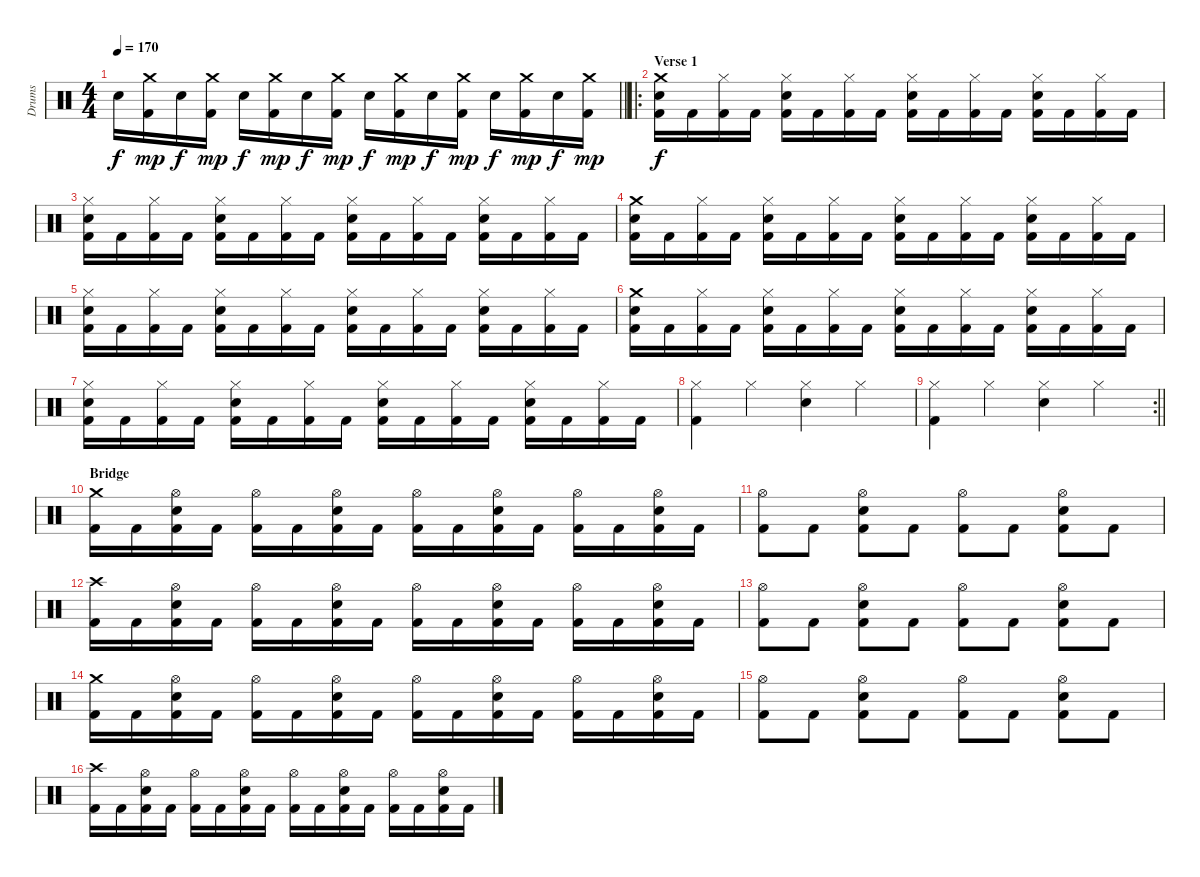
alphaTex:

\track ("Drums" "Drums") {instrument percussion}
\staff {score}
\articulation defaults
\ts (4 4)
\tempo 170
\clef neutral
\barLineRight lightlight
\ks c "Snare (hit) 2".16{dy f}
("Kick (hit) 2" "Crash medium (hit)").16{dy mp} "Snare (hit) 2".16{dy f} ("Kick (hit) 2" "Crash medium (hit)").16{dy mp} "Snare (hit) 2".16{dy f} ("Kick (hit) 2" "Crash medium (hit)").16{dy mp} "Snare (hit) 2".16{dy f} ("Kick (hit) 2" "Crash medium (hit)").16{dy mp} "Snare (hit) 2".16{dy f} ("Kick (hit) 2" "Crash medium (hit)").16{dy mp} "Snare (hit) 2".16{dy f} ("Kick (hit) 2" "Crash medium (hit)").16{dy mp} "Snare (hit) 2".16{dy f} ("Kick (hit) 2" "Crash medium (hit)").16{dy mp} "Snare (hit) 2".16{dy f} ("Kick (hit) 2" "Crash medium (hit)").16{dy mp} |
\ro
\section ("" "Verse 1")
("Kick (hit) 2" "Snare (hit) 2" "Crash medium (hit)").16{dy f} "Kick (hit) 2".16 ("Kick (hit) 2" "Hi-Hat (closed)").16 "Kick (hit) 2".16 ("Kick (hit) 2" "Snare (hit) 2" "Hi-Hat (closed)").16 "Kick (hit) 2".16 ("Kick (hit) 2" "Hi-Hat (closed)").16 "Kick (hit) 2".16 ("Kick (hit) 2" "Snare (hit) 2" "Hi-Hat (closed)").16 "Kick (hit) 2".16 ("Kick (hit) 2" "Hi-Hat (closed)").16 "Kick (hit) 2".16 ("Kick (hit) 2" "Snare (hit) 2" "Hi-Hat (closed)").16 "Kick (hit) 2".16 ("Kick (hit) 2" "Hi-Hat (closed)").16 "Kick (hit) 2".16 |
("Kick (hit) 2" "Snare (hit) 2" "Hi-Hat (closed)").16 "Kick (hit) 2".16 ("Kick (hit) 2" "Hi-Hat (closed)").16 "Kick (hit) 2".16 ("Kick (hit) 2" "Snare (hit) 2" "Hi-Hat (closed)").16 "Kick (hit) 2".16 ("Kick (hit) 2" "Hi-Hat (closed)").16 "Kick (hit) 2".16 ("Kick (hit) 2" "Snare (hit) 2" "Hi-Hat (closed)").16 "Kick (hit) 2".16 ("Kick (hit) 2" "Hi-Hat (closed)").16 "Kick (hit) 2".16 ("Kick (hit) 2" "Snare (hit) 2" "Hi-Hat (closed)").16 "Kick (hit) 2".16 ("Kick (hit) 2" "Hi-Hat (closed)").16 "Kick (hit) 2".16 |
("Kick (hit) 2" "Snare (hit) 2" "Crash medium (hit)").16 "Kick (hit) 2".16 ("Kick (hit) 2" "Hi-Hat (closed)").16 "Kick (hit) 2".16 ("Kick (hit) 2" "Snare (hit) 2" "Hi-Hat (closed)").16 "Kick (hit) 2".16 ("Kick (hit) 2" "Hi-Hat (closed)").16 "Kick (hit) 2".16 ("Kick (hit) 2" "Snare (hit) 2" "Hi-Hat (closed)").16 "Kick (hit) 2".16 ("Kick (hit) 2" "Hi-Hat (closed)").16 "Kick (hit) 2".16 ("Kick (hit) 2" "Snare (hit) 2" "Hi-Hat (closed)").16 "Kick (hit) 2".16 ("Kick (hit) 2" "Hi-Hat (closed)").16 "Kick (hit) 2".16 |
("Kick (hit) 2" "Snare (hit) 2" "Hi-Hat (closed)").16 "Kick (hit) 2".16 ("Kick (hit) 2" "Hi-Hat (closed)").16 "Kick (hit) 2".16 ("Kick (hit) 2" "Snare (hit) 2" "Hi-Hat (closed)").16 "Kick (hit) 2".16 ("Kick (hit) 2" "Hi-Hat (closed)").16 "Kick (hit) 2".16 ("Kick (hit) 2" "Snare (hit) 2" "Hi-Hat (closed)").16 "Kick (hit) 2".16 ("Kick (hit) 2" "Hi-Hat (closed)").16 "Kick (hit) 2".16 ("Kick (hit) 2" "Snare (hit) 2" "Hi-Hat (closed)").16 "Kick (hit) 2".16 ("Kick (hit) 2" "Hi-Hat (closed)").16 "Kick (hit) 2".16 |
("Kick (hit) 2" "Snare (hit) 2" "Crash medium (hit)").16 "Kick (hit) 2".16 ("Kick (hit) 2" "Hi-Hat (closed)").16 "Kick (hit) 2".16 ("Kick (hit) 2" "Snare (hit) 2" "Hi-Hat (closed)").16 "Kick (hit) 2".16 ("Kick (hit) 2" "Hi-Hat (closed)").16 "Kick (hit) 2".16 ("Kick (hit) 2" "Snare (hit) 2" "Hi-Hat (closed)").16 "Kick (hit) 2".16 ("Kick (hit) 2" "Hi-Hat (closed)").16 "Kick (hit) 2".16 ("Kick (hit) 2" "Snare (hit) 2" "Hi-Hat (closed)").16 "Kick (hit) 2".16 ("Kick (hit) 2" "Hi-Hat (closed)").16 "Kick (hit) 2".16 |
("Kick (hit) 2" "Snare (hit) 2" "Hi-Hat (closed)").16 "Kick (hit) 2".16 ("Kick (hit) 2" "Hi-Hat (closed)").16 "Kick (hit) 2".16 ("Kick (hit) 2" "Snare (hit) 2" "Hi-Hat (closed)").16 "Kick (hit) 2".16 ("Kick (hit) 2" "Hi-Hat (closed)").16 "Kick (hit) 2".16 ("Kick (hit) 2" "Snare (hit) 2" "Hi-Hat (closed)").16 "Kick (hit) 2".16 ("Kick (hit) 2" "Hi-Hat (closed)").16 "Kick (hit) 2".16 ("Kick (hit) 2" "Snare (hit) 2" "Hi-Hat (closed)").16 "Kick (hit) 2".16 ("Kick (hit) 2" "Hi-Hat (closed)").16 "Kick (hit) 2".16 |
("Kick (hit) 2" "Hi-Hat (closed)").4 "Hi-Hat (closed)".4 ("Snare (hit) 2" "Hi-Hat (closed)").4 "Hi-Hat (closed)".4 |
\rc 2
\barLineRight lightlight
("Kick (hit) 2" "Hi-Hat (closed)").4 "Hi-Hat (closed)".4 ("Snare (hit) 2" "Hi-Hat (closed)").4 "Hi-Hat (closed)".4 |
\section ("" "Bridge")
("Kick (hit) 2" "Crash medium (hit)").16 "Kick (hit) 2".16 ("Kick (hit) 2" "Snare (hit) 2" "Hi-Hat (open)").16 "Kick (hit) 2".16 ("Kick (hit) 2" "Hi-Hat (open)").16 "Kick (hit) 2".16 ("Kick (hit) 2" "Snare (hit) 2" "Hi-Hat (open)").16 "Kick (hit) 2".16 ("Kick (hit) 2" "Hi-Hat (open)").16 "Kick (hit) 2".16 ("Kick (hit) 2" "Snare (hit) 2" "Hi-Hat (open)").16 "Kick (hit) 2".16 ("Kick (hit) 2" "Hi-Hat (open)").16 "Kick (hit) 2".16 ("Kick (hit) 2" "Snare (hit) 2" "Hi-Hat (open)").16 "Kick (hit) 2".16 |
("Kick (hit) 2" "Hi-Hat (open)").8 "Kick (hit) 2".8 ("Kick (hit) 2" "Snare (hit) 2" "Hi-Hat (open)").8 "Kick (hit) 2".8 ("Kick (hit) 2" "Hi-Hat (open)").8 "Kick (hit) 2".8 ("Kick (hit) 2" "Snare (hit) 2" "Hi-Hat (open)").8 "Kick (hit) 2".8 |
("Kick (hit) 2" "Crash high (hit)").16 "Kick (hit) 2".16 ("Kick (hit) 2" "Snare (hit) 2" "Hi-Hat (open)").16 "Kick (hit) 2".16 ("Kick (hit) 2" "Hi-Hat (open)").16 "Kick (hit) 2".16 ("Kick (hit) 2" "Snare (hit) 2" "Hi-Hat (open)").16 "Kick (hit) 2".16 ("Kick (hit) 2" "Hi-Hat (open)").16 "Kick (hit) 2".16 ("Kick (hit) 2" "Snare (hit) 2" "Hi-Hat (open)").16 "Kick (hit) 2".16 ("Kick (hit) 2" "Hi-Hat (open)").16 "Kick (hit) 2".16 ("Kick (hit) 2" "Snare (hit) 2" "Hi-Hat (open)").16 "Kick (hit) 2".16 |
("Kick (hit) 2" "Hi-Hat (open)").8 "Kick (hit) 2".8 ("Kick (hit) 2" "Snare (hit) 2" "Hi-Hat (open)").8 "Kick (hit) 2".8 ("Kick (hit) 2" "Hi-Hat (open)").8 "Kick (hit) 2".8 ("Kick (hit) 2" "Snare (hit) 2" "Hi-Hat (open)").8 "Kick (hit) 2".8 |
("Kick (hit) 2" "Crash medium (hit)").16 "Kick (hit) 2".16 ("Kick (hit) 2" "Snare (hit) 2" "Hi-Hat (open)").16 "Kick (hit) 2".16 ("Kick (hit) 2" "Hi-Hat (open)").16 "Kick (hit) 2".16 ("Kick (hit) 2" "Snare (hit) 2" "Hi-Hat (open)").16 "Kick (hit) 2".16 ("Kick (hit) 2" "Hi-Hat (open)").16 "Kick (hit) 2".16 ("Kick (hit) 2" "Snare (hit) 2" "Hi-Hat (open)").16 "Kick (hit) 2".16 ("Kick (hit) 2" "Hi-Hat (open)").16 "Kick (hit) 2".16 ("Kick (hit) 2" "Snare (hit) 2" "Hi-Hat (open)").16 "Kick (hit) 2".16 |
("Kick (hit) 2" "Hi-Hat (open)").8 "Kick (hit) 2".8 ("Kick (hit) 2" "Snare (hit) 2" "Hi-Hat (open)").8 "Kick (hit) 2".8 ("Kick (hit) 2" "Hi-Hat (open)").8 "Kick (hit) 2".8 ("Kick (hit) 2" "Snare (hit) 2" "Hi-Hat (open)").8 "Kick (hit) 2".8 |
("Kick (hit) 2" "Crash high (hit)").16 "Kick (hit) 2".16 ("Kick (hit) 2" "Snare (hit) 2" "Hi-Hat (open)").16 "Kick (hit) 2".16 ("Kick (hit) 2" "Hi-Hat (open)").16 "Kick (hit) 2".16 ("Kick (hit) 2" "Snare (hit) 2" "Hi-Hat (open)").16 "Kick (hit) 2".16 ("Kick (hit) 2" "Hi-Hat (open)").16 "Kick (hit) 2".16 ("Kick (hit) 2" "Snare (hit) 2" "Hi-Hat (open)").16 "Kick (hit) 2".16 ("Kick (hit) 2" "Hi-Hat (open)").16 "Kick (hit) 2".16 ("Kick (hit) 2" "Snare (hit) 2" "Hi-Hat (open)").16 "Kick (hit) 2".16
